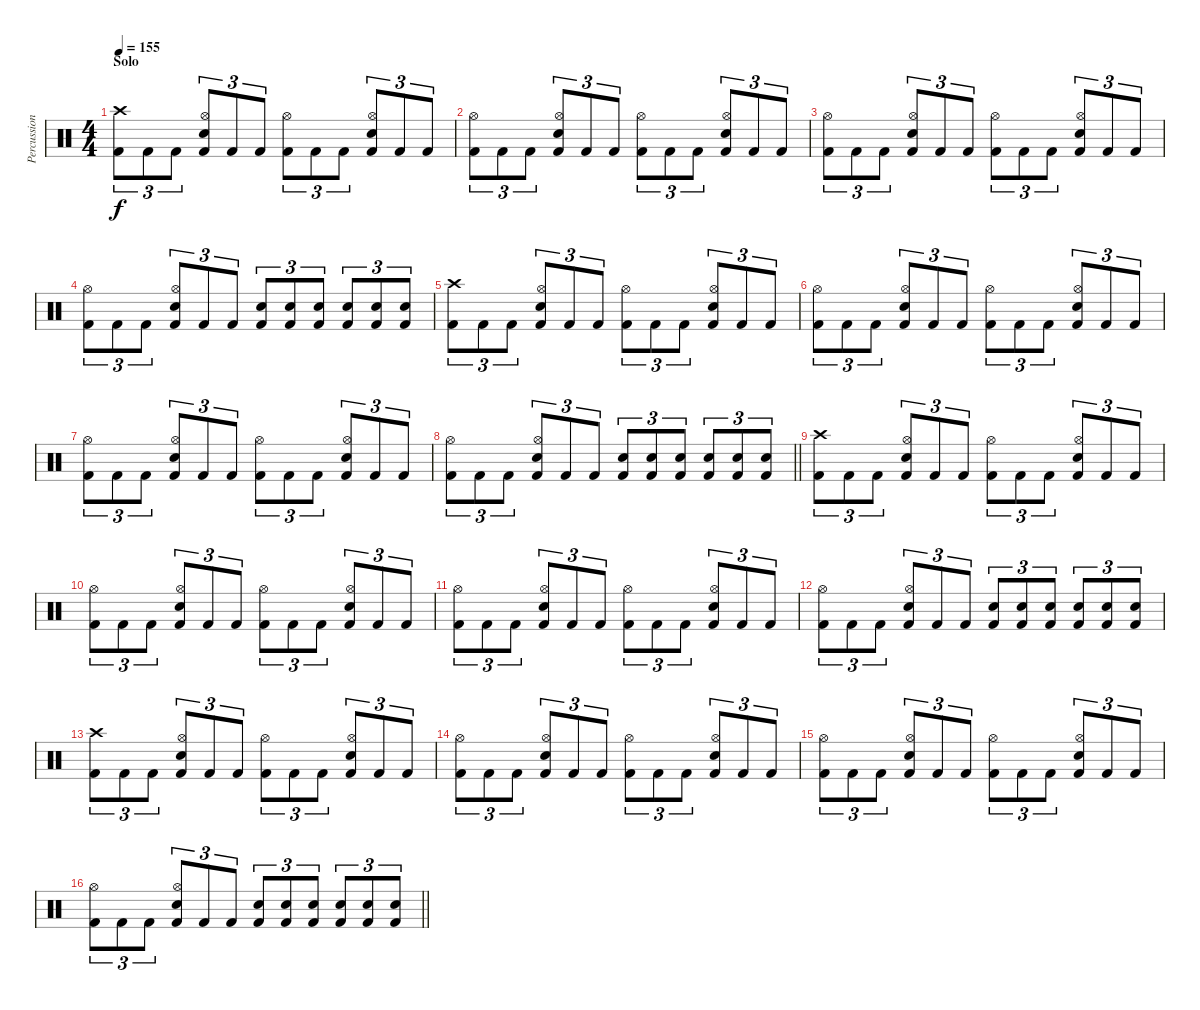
\track ("Percussion" "Percussion") {instrument percussion}
\staff {score}
\articulation defaults
\ts (4 4)
\section ("" "Solo")
\tempo 155
\clef neutral
\ks c
("Crash high (hit)" "Kick (hit) 2").8{tu (3 2) dy f} "Kick (hit) 2".8{tu (3 2)} "Kick (hit) 2".8{tu (3 2)} ("Hi-Hat (open)" "Electric Snare (hit)" "Kick (hit) 2").8{tu (3 2)} "Kick (hit) 2".8{tu (3 2)} "Kick (hit) 2".8{tu (3 2)} ("Hi-Hat (open)" "Kick (hit) 2").8{tu (3 2)} "Kick (hit) 2".8{tu (3 2)} "Kick (hit) 2".8{tu (3 2)} ("Hi-Hat (open)" "Electric Snare (hit)" "Kick (hit) 2").8{tu (3 2)} "Kick (hit) 2".8{tu (3 2)} "Kick (hit) 2".8{tu (3 2)} |
("Hi-Hat (open)" "Kick (hit) 2").8{tu (3 2)} "Kick (hit) 2".8{tu (3 2)} "Kick (hit) 2".8{tu (3 2)} ("Hi-Hat (open)" "Electric Snare (hit)" "Kick (hit) 2").8{tu (3 2)} "Kick (hit) 2".8{tu (3 2)} "Kick (hit) 2".8{tu (3 2)} ("Hi-Hat (open)" "Kick (hit) 2").8{tu (3 2)} "Kick (hit) 2".8{tu (3 2)} "Kick (hit) 2".8{tu (3 2)} ("Hi-Hat (open)" "Electric Snare (hit)" "Kick (hit) 2").8{tu (3 2)} "Kick (hit) 2".8{tu (3 2)} "Kick (hit) 2".8{tu (3 2)} |
("Hi-Hat (open)" "Kick (hit) 2").8{tu (3 2)} "Kick (hit) 2".8{tu (3 2)} "Kick (hit) 2".8{tu (3 2)} ("Hi-Hat (open)" "Electric Snare (hit)" "Kick (hit) 2").8{tu (3 2)} "Kick (hit) 2".8{tu (3 2)} "Kick (hit) 2".8{tu (3 2)} ("Hi-Hat (open)" "Kick (hit) 2").8{tu (3 2)} "Kick (hit) 2".8{tu (3 2)} "Kick (hit) 2".8{tu (3 2)} ("Hi-Hat (open)" "Electric Snare (hit)" "Kick (hit) 2").8{tu (3 2)} "Kick (hit) 2".8{tu (3 2)} "Kick (hit) 2".8{tu (3 2)} |
("Hi-Hat (open)" "Kick (hit) 2").8{tu (3 2)} "Kick (hit) 2".8{tu (3 2)} "Kick (hit) 2".8{tu (3 2)} ("Hi-Hat (open)" "Electric Snare (hit)" "Kick (hit) 2").8{tu (3 2)} "Kick (hit) 2".8{tu (3 2)} "Kick (hit) 2".8{tu (3 2)} ("Electric Snare (hit)" "Kick (hit) 2").8{tu (3 2)} ("Electric Snare (hit)" "Kick (hit) 2").8{tu (3 2)} ("Electric Snare (hit)" "Kick (hit) 2").8{tu (3 2)} ("Electric Snare (hit)" "Kick (hit) 2").8{tu (3 2)} ("Electric Snare (hit)" "Kick (hit) 2").8{tu (3 2)} ("Electric Snare (hit)" "Kick (hit) 2").8{tu (3 2)} |
("Crash high (hit)" "Kick (hit) 2").8{tu (3 2)} "Kick (hit) 2".8{tu (3 2)} "Kick (hit) 2".8{tu (3 2)} ("Hi-Hat (open)" "Electric Snare (hit)" "Kick (hit) 2").8{tu (3 2)} "Kick (hit) 2".8{tu (3 2)} "Kick (hit) 2".8{tu (3 2)} ("Hi-Hat (open)" "Kick (hit) 2").8{tu (3 2)} "Kick (hit) 2".8{tu (3 2)} "Kick (hit) 2".8{tu (3 2)} ("Hi-Hat (open)" "Electric Snare (hit)" "Kick (hit) 2").8{tu (3 2)} "Kick (hit) 2".8{tu (3 2)} "Kick (hit) 2".8{tu (3 2)} |
("Hi-Hat (open)" "Kick (hit) 2").8{tu (3 2)} "Kick (hit) 2".8{tu (3 2)} "Kick (hit) 2".8{tu (3 2)} ("Hi-Hat (open)" "Electric Snare (hit)" "Kick (hit) 2").8{tu (3 2)} "Kick (hit) 2".8{tu (3 2)} "Kick (hit) 2".8{tu (3 2)} ("Hi-Hat (open)" "Kick (hit) 2").8{tu (3 2)} "Kick (hit) 2".8{tu (3 2)} "Kick (hit) 2".8{tu (3 2)} ("Hi-Hat (open)" "Electric Snare (hit)" "Kick (hit) 2").8{tu (3 2)} "Kick (hit) 2".8{tu (3 2)} "Kick (hit) 2".8{tu (3 2)} |
("Hi-Hat (open)" "Kick (hit) 2").8{tu (3 2)} "Kick (hit) 2".8{tu (3 2)} "Kick (hit) 2".8{tu (3 2)} ("Hi-Hat (open)" "Electric Snare (hit)" "Kick (hit) 2").8{tu (3 2)} "Kick (hit) 2".8{tu (3 2)} "Kick (hit) 2".8{tu (3 2)} ("Hi-Hat (open)" "Kick (hit) 2").8{tu (3 2)} "Kick (hit) 2".8{tu (3 2)} "Kick (hit) 2".8{tu (3 2)} ("Hi-Hat (open)" "Electric Snare (hit)" "Kick (hit) 2").8{tu (3 2)} "Kick (hit) 2".8{tu (3 2)} "Kick (hit) 2".8{tu (3 2)} |
\barLineRight lightlight
("Hi-Hat (open)" "Kick (hit) 2").8{tu (3 2)} "Kick (hit) 2".8{tu (3 2)} "Kick (hit) 2".8{tu (3 2)} ("Hi-Hat (open)" "Electric Snare (hit)" "Kick (hit) 2").8{tu (3 2)} "Kick (hit) 2".8{tu (3 2)} "Kick (hit) 2".8{tu (3 2)} ("Electric Snare (hit)" "Kick (hit) 2").8{tu (3 2)} ("Electric Snare (hit)" "Kick (hit) 2").8{tu (3 2)} ("Electric Snare (hit)" "Kick (hit) 2").8{tu (3 2)} ("Electric Snare (hit)" "Kick (hit) 2").8{tu (3 2)} ("Electric Snare (hit)" "Kick (hit) 2").8{tu (3 2)} ("Electric Snare (hit)" "Kick (hit) 2").8{tu (3 2)} |
\section ("" "")
("Crash high (hit)" "Kick (hit) 2").8{tu (3 2)} "Kick (hit) 2".8{tu (3 2)} "Kick (hit) 2".8{tu (3 2)} ("Hi-Hat (open)" "Electric Snare (hit)" "Kick (hit) 2").8{tu (3 2)} "Kick (hit) 2".8{tu (3 2)} "Kick (hit) 2".8{tu (3 2)} ("Hi-Hat (open)" "Kick (hit) 2").8{tu (3 2)} "Kick (hit) 2".8{tu (3 2)} "Kick (hit) 2".8{tu (3 2)} ("Hi-Hat (open)" "Electric Snare (hit)" "Kick (hit) 2").8{tu (3 2)} "Kick (hit) 2".8{tu (3 2)} "Kick (hit) 2".8{tu (3 2)} |
("Hi-Hat (open)" "Kick (hit) 2").8{tu (3 2)} "Kick (hit) 2".8{tu (3 2)} "Kick (hit) 2".8{tu (3 2)} ("Hi-Hat (open)" "Electric Snare (hit)" "Kick (hit) 2").8{tu (3 2)} "Kick (hit) 2".8{tu (3 2)} "Kick (hit) 2".8{tu (3 2)} ("Hi-Hat (open)" "Kick (hit) 2").8{tu (3 2)} "Kick (hit) 2".8{tu (3 2)} "Kick (hit) 2".8{tu (3 2)} ("Hi-Hat (open)" "Electric Snare (hit)" "Kick (hit) 2").8{tu (3 2)} "Kick (hit) 2".8{tu (3 2)} "Kick (hit) 2".8{tu (3 2)} |
("Hi-Hat (open)" "Kick (hit) 2").8{tu (3 2)} "Kick (hit) 2".8{tu (3 2)} "Kick (hit) 2".8{tu (3 2)} ("Hi-Hat (open)" "Electric Snare (hit)" "Kick (hit) 2").8{tu (3 2)} "Kick (hit) 2".8{tu (3 2)} "Kick (hit) 2".8{tu (3 2)} ("Hi-Hat (open)" "Kick (hit) 2").8{tu (3 2)} "Kick (hit) 2".8{tu (3 2)} "Kick (hit) 2".8{tu (3 2)} ("Hi-Hat (open)" "Electric Snare (hit)" "Kick (hit) 2").8{tu (3 2)} "Kick (hit) 2".8{tu (3 2)} "Kick (hit) 2".8{tu (3 2)} |
("Hi-Hat (open)" "Kick (hit) 2").8{tu (3 2)} "Kick (hit) 2".8{tu (3 2)} "Kick (hit) 2".8{tu (3 2)} ("Hi-Hat (open)" "Electric Snare (hit)" "Kick (hit) 2").8{tu (3 2)} "Kick (hit) 2".8{tu (3 2)} "Kick (hit) 2".8{tu (3 2)} ("Electric Snare (hit)" "Kick (hit) 2").8{tu (3 2)} ("Electric Snare (hit)" "Kick (hit) 2").8{tu (3 2)} ("Electric Snare (hit)" "Kick (hit) 2").8{tu (3 2)} ("Electric Snare (hit)" "Kick (hit) 2").8{tu (3 2)} ("Electric Snare (hit)" "Kick (hit) 2").8{tu (3 2)} ("Electric Snare (hit)" "Kick (hit) 2").8{tu (3 2)} |
("Crash high (hit)" "Kick (hit) 2").8{tu (3 2)} "Kick (hit) 2".8{tu (3 2)} "Kick (hit) 2".8{tu (3 2)} ("Hi-Hat (open)" "Electric Snare (hit)" "Kick (hit) 2").8{tu (3 2)} "Kick (hit) 2".8{tu (3 2)} "Kick (hit) 2".8{tu (3 2)} ("Hi-Hat (open)" "Kick (hit) 2").8{tu (3 2)} "Kick (hit) 2".8{tu (3 2)} "Kick (hit) 2".8{tu (3 2)} ("Hi-Hat (open)" "Electric Snare (hit)" "Kick (hit) 2").8{tu (3 2)} "Kick (hit) 2".8{tu (3 2)} "Kick (hit) 2".8{tu (3 2)} |
("Hi-Hat (open)" "Kick (hit) 2").8{tu (3 2)} "Kick (hit) 2".8{tu (3 2)} "Kick (hit) 2".8{tu (3 2)} ("Hi-Hat (open)" "Electric Snare (hit)" "Kick (hit) 2").8{tu (3 2)} "Kick (hit) 2".8{tu (3 2)} "Kick (hit) 2".8{tu (3 2)} ("Hi-Hat (open)" "Kick (hit) 2").8{tu (3 2)} "Kick (hit) 2".8{tu (3 2)} "Kick (hit) 2".8{tu (3 2)} ("Hi-Hat (open)" "Electric Snare (hit)" "Kick (hit) 2").8{tu (3 2)} "Kick (hit) 2".8{tu (3 2)} "Kick (hit) 2".8{tu (3 2)} |
("Hi-Hat (open)" "Kick (hit) 2").8{tu (3 2)} "Kick (hit) 2".8{tu (3 2)} "Kick (hit) 2".8{tu (3 2)} ("Hi-Hat (open)" "Electric Snare (hit)" "Kick (hit) 2").8{tu (3 2)} "Kick (hit) 2".8{tu (3 2)} "Kick (hit) 2".8{tu (3 2)} ("Hi-Hat (open)" "Kick (hit) 2").8{tu (3 2)} "Kick (hit) 2".8{tu (3 2)} "Kick (hit) 2".8{tu (3 2)} ("Hi-Hat (open)" "Electric Snare (hit)" "Kick (hit) 2").8{tu (3 2)} "Kick (hit) 2".8{tu (3 2)} "Kick (hit) 2".8{tu (3 2)} |
\barLineRight lightlight
("Hi-Hat (open)" "Kick (hit) 2").8{tu (3 2)} "Kick (hit) 2".8{tu (3 2)} "Kick (hit) 2".8{tu (3 2)} ("Hi-Hat (open)" "Electric Snare (hit)" "Kick (hit) 2").8{tu (3 2)} "Kick (hit) 2".8{tu (3 2)} "Kick (hit) 2".8{tu (3 2)} ("Electric Snare (hit)" "Kick (hit) 2").8{tu (3 2)} ("Electric Snare (hit)" "Kick (hit) 2").8{tu (3 2)} ("Electric Snare (hit)" "Kick (hit) 2").8{tu (3 2)} ("Electric Snare (hit)" "Kick (hit) 2").8{tu (3 2)} ("Electric Snare (hit)" "Kick (hit) 2").8{tu (3 2)} ("Electric Snare (hit)" "Kick (hit) 2").8{tu (3 2)}
